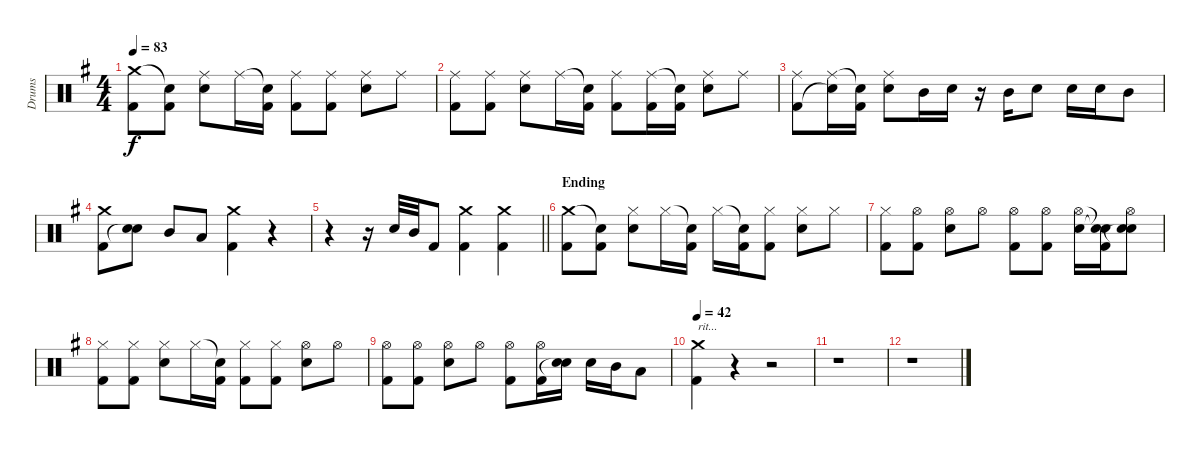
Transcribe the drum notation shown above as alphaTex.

\track ("Drums" "Drums") {instrument percussion}
\staff {score}
\articulation defaults
\ts (4 4)
\tempo 83
\clef neutral
\ks eminor
("Crash medium (hit)" "Kick (hit) 2").8{dy f} ("Snare (hit)"{t} "Kick (hit) 2").8 ("Ride (middle)" "Electric Snare (hit)").8 "Ride (middle)".16 ("Snare (hit)"{t} "Kick (hit) 2").16 ("Ride (middle)" "Kick (hit) 2").8 ("Ride (middle)" "Kick (hit) 2").8 ("Ride (middle)" "Electric Snare (hit)").8 "Ride (middle)".8 |
("Ride (middle)" "Kick (hit) 2").8 ("Ride (middle)" "Kick (hit) 2").8 ("Ride (middle)" "Electric Snare (hit)").8 "Ride (middle)".16 ("Snare (hit)"{t} "Kick (hit) 2").16 ("Ride (middle)" "Kick (hit) 2").8 ("Ride (middle)" "Kick (hit) 2").16 ("Snare (hit)"{t} "Kick (hit) 2").16 ("Ride (middle)" "Electric Snare (hit)").8 "Ride (middle)".8 |
("Ride (middle)" "Kick (hit) 2").8 ("Ride (middle)" "Snare (hit)"{t}).16 ("Snare (hit)"{t} "Kick (hit) 2").16 ("Ride (middle)" "Electric Snare (hit)").8 "Mid Tom (hit)".16 "Electric Snare (hit)".16 r.16 "Mid Tom (hit)".16 "Electric Snare (hit)".8 "Electric Snare (hit)".16 "Electric Snare (hit)".16 "Mid Tom (hit)".8 |
("Crash medium (hit)" "Kick (hit) 2").8 ("Electric Snare (hit)" "Snare (hit)"{t}).8 "Mid Tom (hit)".8 "Low Floor Tom (hit)".8 ("Crash medium (hit)" "Kick (hit) 2").4 r.4 |
\barLineRight lightlight
r.4 r.16 "Electric Snare (hit)".32 "Mid Tom (hit)".32 "Kick (hit) 2".8 ("Crash medium (hit)" "Kick (hit) 2").4 ("Crash medium (hit)" "Kick (hit) 2").4 |
\section ("" "Ending")
("Crash medium (hit)" "Kick (hit) 2").8 ("Snare (hit)"{t} "Kick (hit) 2").8 ("Hi-Hat (closed)" "Electric Snare (hit)").8 "Hi-Hat (closed)".16 ("Snare (hit)"{t} "Kick (hit) 2").16 "Hi-Hat (closed)".16 ("Snare (hit)"{t} "Kick (hit) 2").16 ("Hi-Hat (closed)" "Kick (hit) 2").8 ("Hi-Hat (closed)" "Electric Snare (hit)").8 "Hi-Hat (closed)".8 |
("Hi-Hat (closed)" "Kick (hit) 2").8 ("Hi-Hat (open)" "Kick (hit) 2").8 ("Hi-Hat (open)" "Electric Snare (hit)").8 "Hi-Hat (open)".8 ("Hi-Hat (open)" "Kick (hit) 2").8 ("Hi-Hat (open)" "Kick (hit) 2").8 ("Hi-Hat (open)" "Electric Snare (hit)").16 ("Snare (hit)"{t} "Snare (hit)"{t} "Kick (hit) 2").16 ("Hi-Hat (open)" "Electric Snare (hit)" "Snare (hit)"{t}).8 |
("Hi-Hat (closed)" "Kick (hit) 2").8 ("Hi-Hat (closed)" "Kick (hit) 2").8 ("Hi-Hat (closed)" "Electric Snare (hit)").8 "Hi-Hat (closed)".16 ("Snare (hit)"{t} "Kick (hit) 2").16 ("Hi-Hat (closed)" "Kick (hit) 2").8 ("Hi-Hat (closed)" "Kick (hit) 2").8 ("Hi-Hat (open)" "Electric Snare (hit)").8 "Hi-Hat (open)".8 |
("Hi-Hat (open)" "Kick (hit) 2").8 ("Hi-Hat (open)" "Kick (hit) 2").8 ("Hi-Hat (open)" "Electric Snare (hit)").8 "Hi-Hat (open)".8 ("Hi-Hat (open)" "Kick (hit) 2").8 ("Hi-Hat (open)" "Kick (hit) 2").16 ("Electric Snare (hit)" "Snare (hit)"{t}).16 "Electric Snare (hit)".16 "Mid Tom (hit)".16 "Low Floor Tom (hit)".8 |
\tempo 42
("Crash medium (hit)" "Kick (hit) 2").4{txt "rit..."} r.4 r.2 |
r.1 |
r.1
